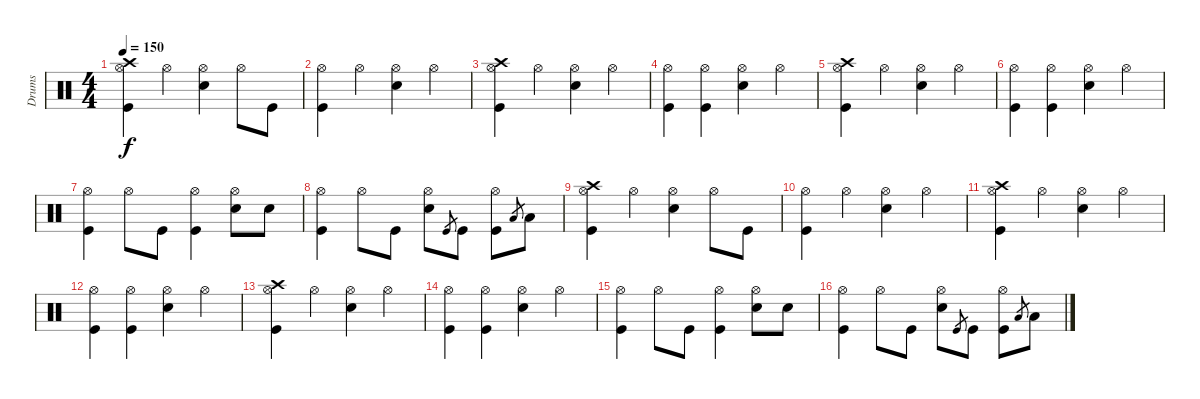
\track ("Drums" "Drums") {instrument percussion}
\staff {score}
\articulation defaults
\ts (4 4)
\tempo 150
\clef neutral
\ks c
("Crash high (hit)" "Hi-Hat (open)" "Kick (hit)").4{dy f} "Hi-Hat (open)".4 ("Hi-Hat (open)" "Electric Snare (hit)").4 "Hi-Hat (open)".8 "Kick (hit)".8 |
("Hi-Hat (open)" "Kick (hit)").4 "Hi-Hat (open)".4 ("Hi-Hat (open)" "Electric Snare (hit)").4 "Hi-Hat (open)".4 |
("Crash high (hit)" "Hi-Hat (open)" "Kick (hit)").4 "Hi-Hat (open)".4 ("Hi-Hat (open)" "Electric Snare (hit)").4 "Hi-Hat (open)".4 |
("Hi-Hat (open)" "Kick (hit)").4 ("Hi-Hat (open)" "Kick (hit)").4 ("Hi-Hat (open)" "Electric Snare (hit)").4 "Hi-Hat (open)".4 |
("Crash high (hit)" "Hi-Hat (open)" "Kick (hit)").4 "Hi-Hat (open)".4 ("Hi-Hat (open)" "Electric Snare (hit)").4 "Hi-Hat (open)".4 |
("Hi-Hat (open)" "Kick (hit)").4 ("Hi-Hat (open)" "Kick (hit)").4 ("Hi-Hat (open)" "Electric Snare (hit)").4 "Hi-Hat (open)".4 |
("Hi-Hat (open)" "Kick (hit)").4 "Hi-Hat (open)".8 "Kick (hit)".8 ("Hi-Hat (open)" "Kick (hit)").4 ("Hi-Hat (open)" "Electric Snare (hit)").8 "Electric Snare (hit)".8 |
("Hi-Hat (open)" "Kick (hit)").4 "Hi-Hat (open)".8 "Kick (hit)".8 ("Hi-Hat (open)" "Electric Snare (hit)").8 "Kick (hit)".8{gr} "Kick (hit)".8 ("Hi-Hat (open)" "Kick (hit)").8 "Low Tom (hit)".8{gr} "Low Tom (hit)".8 |
("Crash high (hit)" "Hi-Hat (open)" "Kick (hit)").4 "Hi-Hat (open)".4 ("Hi-Hat (open)" "Electric Snare (hit)").4 "Hi-Hat (open)".8 "Kick (hit)".8 |
("Hi-Hat (open)" "Kick (hit)").4 "Hi-Hat (open)".4 ("Hi-Hat (open)" "Electric Snare (hit)").4 "Hi-Hat (open)".4 |
("Crash high (hit)" "Hi-Hat (open)" "Kick (hit)").4 "Hi-Hat (open)".4 ("Hi-Hat (open)" "Electric Snare (hit)").4 "Hi-Hat (open)".4 |
("Hi-Hat (open)" "Kick (hit)").4 ("Hi-Hat (open)" "Kick (hit)").4 ("Hi-Hat (open)" "Electric Snare (hit)").4 "Hi-Hat (open)".4 |
("Crash high (hit)" "Hi-Hat (open)" "Kick (hit)").4 "Hi-Hat (open)".4 ("Hi-Hat (open)" "Electric Snare (hit)").4 "Hi-Hat (open)".4 |
("Hi-Hat (open)" "Kick (hit)").4 ("Hi-Hat (open)" "Kick (hit)").4 ("Hi-Hat (open)" "Electric Snare (hit)").4 "Hi-Hat (open)".4 |
("Hi-Hat (open)" "Kick (hit)").4 "Hi-Hat (open)".8 "Kick (hit)".8 ("Hi-Hat (open)" "Kick (hit)").4 ("Hi-Hat (open)" "Electric Snare (hit)").8 "Electric Snare (hit)".8 |
("Hi-Hat (open)" "Kick (hit)").4 "Hi-Hat (open)".8 "Kick (hit)".8 ("Hi-Hat (open)" "Electric Snare (hit)").8 "Kick (hit)".8{gr} "Kick (hit)".8 ("Hi-Hat (open)" "Kick (hit)").8 "Low Tom (hit)".8{gr} "Low Tom (hit)".8
